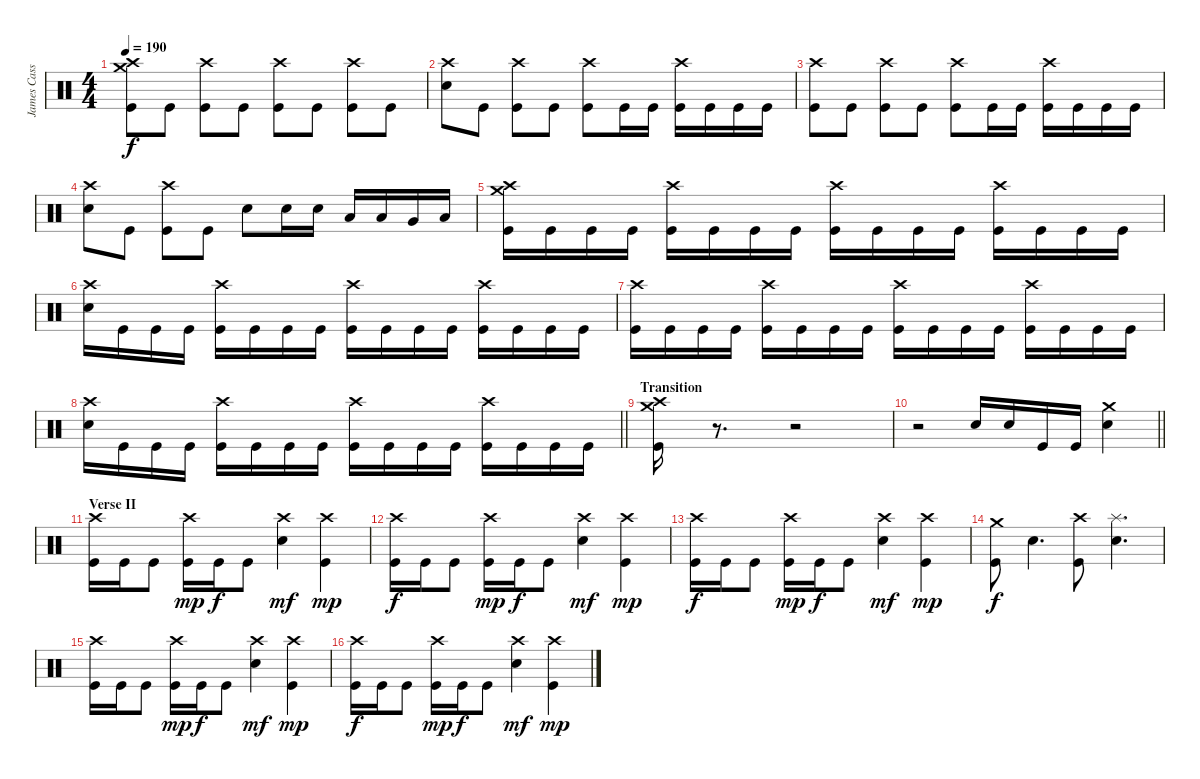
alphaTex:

\track ("James Cassells" "James Cass") {instrument percussion}
\staff {score}
\articulation defaults
\ts (4 4)
\tempo 190
\clef neutral
\ks c
("Crash high (hit)" "Crash medium (hit)" "Kick (hit)").8{dy f} "Kick (hit)".8 ("Crash high (hit)" "Kick (hit)").8 "Kick (hit)".8 ("Crash high (hit)" "Kick (hit)").8 "Kick (hit)".8 ("Crash high (hit)" "Kick (hit)").8 "Kick (hit)".8 |
("Crash high (hit)" "Snare (hit) 2").8 "Kick (hit)".8 ("Crash high (hit)" "Kick (hit)").8 "Kick (hit)".8 ("Crash high (hit)" "Kick (hit)").8 "Kick (hit)".16 "Kick (hit)".16 ("Crash high (hit)" "Kick (hit)").16 "Kick (hit)".16 "Kick (hit)".16 "Kick (hit)".16 |
("Crash high (hit)" "Kick (hit)").8 "Kick (hit)".8 ("Crash high (hit)" "Kick (hit)").8 "Kick (hit)".8 ("Crash high (hit)" "Kick (hit)").8 "Kick (hit)".16 "Kick (hit)".16 ("Crash high (hit)" "Kick (hit)").16 "Kick (hit)".16 "Kick (hit)".16 "Kick (hit)".16 |
("Crash high (hit)" "Snare (hit) 2").8 "Kick (hit)".8 ("Crash high (hit)" "Kick (hit)").8 "Kick (hit)".8 "Snare (hit) 2".8 "Snare (hit) 2".16 "Snare (hit) 2".16 "Low Tom (hit)".16 "Low Tom (hit)".16 "Very Low Tom (hit)".16 "Low Floor Tom (hit)".16 |
("Crash high (hit)" "Crash medium (hit)" "Kick (hit)").16 "Kick (hit)".16 "Kick (hit)".16 "Kick (hit)".16 ("Crash high (hit)" "Kick (hit)").16 "Kick (hit)".16 "Kick (hit)".16 "Kick (hit)".16 ("Crash high (hit)" "Kick (hit)").16 "Kick (hit)".16 "Kick (hit)".16 "Kick (hit)".16 ("Crash high (hit)" "Kick (hit)").16 "Kick (hit)".16 "Kick (hit)".16 "Kick (hit)".16 |
("Crash high (hit)" "Snare (hit) 2").16 "Kick (hit)".16 "Kick (hit)".16 "Kick (hit)".16 ("Crash high (hit)" "Kick (hit)").16 "Kick (hit)".16 "Kick (hit)".16 "Kick (hit)".16 ("Crash high (hit)" "Kick (hit)").16 "Kick (hit)".16 "Kick (hit)".16 "Kick (hit)".16 ("Crash high (hit)" "Kick (hit)").16 "Kick (hit)".16 "Kick (hit)".16 "Kick (hit)".16 |
("Crash high (hit)" "Kick (hit)").16 "Kick (hit)".16 "Kick (hit)".16 "Kick (hit)".16 ("Crash high (hit)" "Kick (hit)").16 "Kick (hit)".16 "Kick (hit)".16 "Kick (hit)".16 ("Crash high (hit)" "Kick (hit)").16 "Kick (hit)".16 "Kick (hit)".16 "Kick (hit)".16 ("Crash high (hit)" "Kick (hit)").16 "Kick (hit)".16 "Kick (hit)".16 "Kick (hit)".16 |
\barLineRight lightlight
("Crash high (hit)" "Snare (hit) 2").16 "Kick (hit)".16 "Kick (hit)".16 "Kick (hit)".16 ("Crash high (hit)" "Kick (hit)").16 "Kick (hit)".16 "Kick (hit)".16 "Kick (hit)".16 ("Crash high (hit)" "Kick (hit)").16 "Kick (hit)".16 "Kick (hit)".16 "Kick (hit)".16 ("Crash high (hit)" "Kick (hit)").16 "Kick (hit)".16 "Kick (hit)".16 "Kick (hit)".16 |
\section ("" "Transition")
("Crash high (hit)" "Crash medium (hit)" "Kick (hit)").16 r.8{d volume 1} r.2 |
\barLineRight lightlight
r.2 "Snare (hit) 2".16{volume 13} "Snare (hit) 2".16 "Kick (hit)".16 "Kick (hit)".16 ("Crash medium (hit)" "Snare (hit) 2").4 |
\section ("" "Verse II")
("Crash high (hit)" "Kick (hit)").16 "Kick (hit)".16 "Kick (hit)".8 ("Crash high (hit)" "Kick (hit)").16{dy mp} "Kick (hit)".16{dy f} "Kick (hit)".8 ("Crash high (hit)" "Snare (hit) 2").4{dy mf} ("Crash high (hit)" "Kick (hit)").4{dy mp} |
("Crash high (hit)" "Kick (hit)").16{dy f} "Kick (hit)".16 "Kick (hit)".8 ("Crash high (hit)" "Kick (hit)").16{dy mp} "Kick (hit)".16{dy f} "Kick (hit)".8 ("Crash high (hit)" "Snare (hit) 2").4{dy mf} ("Crash high (hit)" "Kick (hit)").4{dy mp} |
("Crash high (hit)" "Kick (hit)").16{dy f} "Kick (hit)".16 "Kick (hit)".8 ("Crash high (hit)" "Kick (hit)").16{dy mp} "Kick (hit)".16{dy f} "Kick (hit)".8 ("Crash high (hit)" "Snare (hit) 2").4{dy mf} ("Crash high (hit)" "Kick (hit)").4{dy mp} |
("Crash medium (hit)" "Kick (hit)").8{dy f} "Snare (hit) 2".4{d} ("Crash high (hit)" "Kick (hit)").8 ("Splash (hit)" "Snare (hit) 2").4{d} |
("Crash high (hit)" "Kick (hit)").16 "Kick (hit)".16 "Kick (hit)".8 ("Crash high (hit)" "Kick (hit)").16{dy mp} "Kick (hit)".16{dy f} "Kick (hit)".8 ("Crash high (hit)" "Snare (hit) 2").4{dy mf} ("Crash high (hit)" "Kick (hit)").4{dy mp} |
("Crash high (hit)" "Kick (hit)").16{dy f} "Kick (hit)".16 "Kick (hit)".8 ("Crash high (hit)" "Kick (hit)").16{dy mp} "Kick (hit)".16{dy f} "Kick (hit)".8 ("Crash high (hit)" "Snare (hit) 2").4{dy mf} ("Crash high (hit)" "Kick (hit)").4{dy mp}
